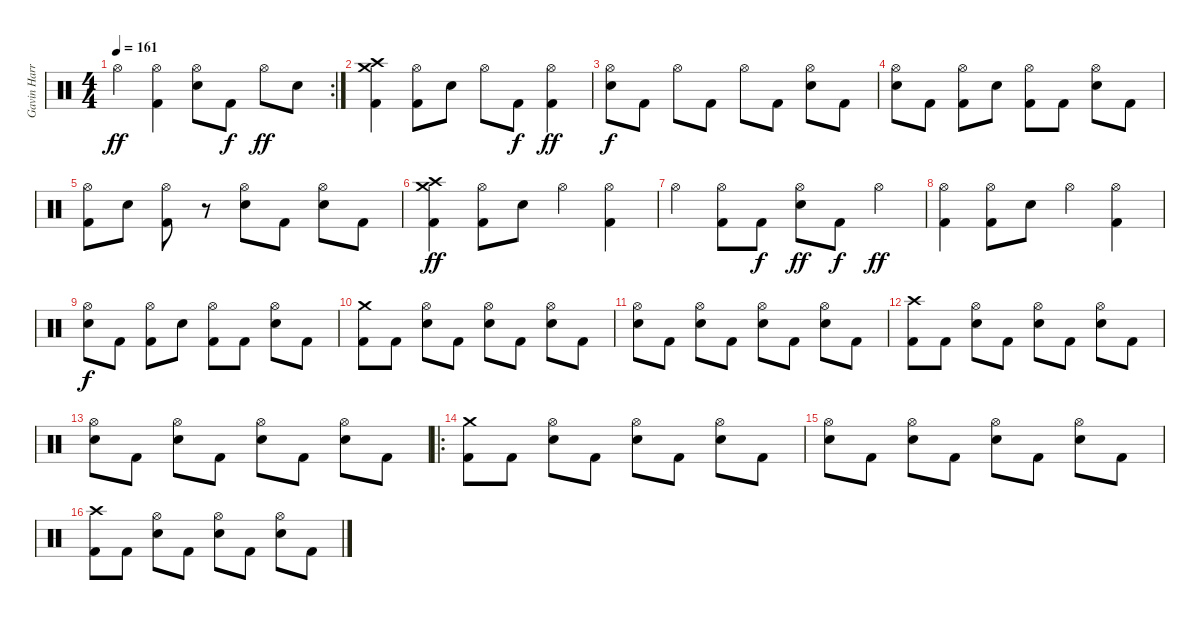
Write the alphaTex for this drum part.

\track ("Gavin Harrison (Drums)" "Gavin Harr") {instrument percussion}
\staff {score}
\articulation defaults
\rc 2
\ts (4 4)
\tempo 161
\clef neutral
\ks c "Hi-Hat (open)".4{dy ff}
("Hi-Hat (open)" "Kick (hit) 2").4 ("Hi-Hat (open)" "Electric Snare (hit)").8 "Kick (hit) 2".8{dy f} "Hi-Hat (open)".8{dy ff} "Electric Snare (hit)".8 |
("Crash high (hit)" "Crash medium (hit)" "Kick (hit) 2").4 ("Hi-Hat (open)" "Kick (hit) 2").8 "Electric Snare (hit)".8 "Hi-Hat (open)".8 "Kick (hit) 2".8{dy f} ("Hi-Hat (open)" "Kick (hit) 2").4{dy ff} |
("Hi-Hat (open)" "Electric Snare (hit)").8{dy f} "Kick (hit) 2".8 "Hi-Hat (open)".8 "Kick (hit) 2".8 "Hi-Hat (open)".8 "Kick (hit) 2".8 ("Hi-Hat (open)" "Electric Snare (hit)").8 "Kick (hit) 2".8 |
("Hi-Hat (open)" "Electric Snare (hit)").8 "Kick (hit) 2".8 ("Hi-Hat (open)" "Kick (hit) 2").8 "Electric Snare (hit)".8 ("Hi-Hat (open)" "Kick (hit) 2").8 "Kick (hit) 2".8 ("Hi-Hat (open)" "Electric Snare (hit)").8 "Kick (hit) 2".8 |
("Hi-Hat (open)" "Kick (hit) 2").8 "Electric Snare (hit)".8 ("Hi-Hat (open)" "Kick (hit) 2").8 r.8 ("Hi-Hat (open)" "Electric Snare (hit)").8 "Kick (hit) 2".8 ("Hi-Hat (open)" "Electric Snare (hit)").8 "Kick (hit) 2".8 |
("Crash high (hit)" "Crash medium (hit)" "Kick (hit) 2").4{dy ff} ("Hi-Hat (open)" "Kick (hit) 2").8 "Electric Snare (hit)".8 "Hi-Hat (open)".4 ("Hi-Hat (open)" "Kick (hit) 2").4 |
"Hi-Hat (open)".4 ("Hi-Hat (open)" "Kick (hit) 2").8 "Kick (hit) 2".8{dy f} ("Hi-Hat (open)" "Electric Snare (hit)").8{dy ff} "Kick (hit) 2".8{dy f} "Hi-Hat (open)".4{dy ff} |
("Hi-Hat (open)" "Kick (hit) 2").4 ("Hi-Hat (open)" "Kick (hit) 2").8 "Electric Snare (hit)".8 "Hi-Hat (open)".4 ("Hi-Hat (open)" "Kick (hit) 2").4 |
("Hi-Hat (open)" "Electric Snare (hit)").8{dy f} "Kick (hit) 2".8 ("Hi-Hat (open)" "Kick (hit) 2").8 "Electric Snare (hit)".8 ("Hi-Hat (open)" "Kick (hit) 2").8 "Kick (hit) 2".8 ("Hi-Hat (open)" "Electric Snare (hit)").8 "Kick (hit) 2".8 |
("Crash medium (hit)" "Kick (hit) 2").8 "Kick (hit) 2".8 ("Hi-Hat (open)" "Electric Snare (hit)").8 "Kick (hit) 2".8 ("Hi-Hat (open)" "Electric Snare (hit)").8 "Kick (hit) 2".8 ("Hi-Hat (open)" "Electric Snare (hit)").8 "Kick (hit) 2".8 |
("Hi-Hat (open)" "Electric Snare (hit)").8 "Kick (hit) 2".8 ("Hi-Hat (open)" "Electric Snare (hit)").8 "Kick (hit) 2".8 ("Hi-Hat (open)" "Electric Snare (hit)").8 "Kick (hit) 2".8 ("Hi-Hat (open)" "Electric Snare (hit)").8 "Kick (hit) 2".8 |
("Crash high (hit)" "Kick (hit) 2").8 "Kick (hit) 2".8 ("Hi-Hat (open)" "Electric Snare (hit)").8 "Kick (hit) 2".8 ("Hi-Hat (open)" "Electric Snare (hit)").8 "Kick (hit) 2".8 ("Hi-Hat (open)" "Electric Snare (hit)").8 "Kick (hit) 2".8 |
("Hi-Hat (open)" "Electric Snare (hit)").8 "Kick (hit) 2".8 ("Hi-Hat (open)" "Electric Snare (hit)").8 "Kick (hit) 2".8 ("Hi-Hat (open)" "Electric Snare (hit)").8 "Kick (hit) 2".8 ("Hi-Hat (open)" "Electric Snare (hit)").8 "Kick (hit) 2".8 |
\ro
("Crash medium (hit)" "Kick (hit) 2").8 "Kick (hit) 2".8 ("Hi-Hat (open)" "Electric Snare (hit)").8 "Kick (hit) 2".8 ("Hi-Hat (open)" "Electric Snare (hit)").8 "Kick (hit) 2".8 ("Hi-Hat (open)" "Electric Snare (hit)").8 "Kick (hit) 2".8 |
("Hi-Hat (open)" "Electric Snare (hit)").8 "Kick (hit) 2".8 ("Hi-Hat (open)" "Electric Snare (hit)").8 "Kick (hit) 2".8 ("Hi-Hat (open)" "Electric Snare (hit)").8 "Kick (hit) 2".8 ("Hi-Hat (open)" "Electric Snare (hit)").8 "Kick (hit) 2".8 |
("Crash high (hit)" "Kick (hit) 2").8 "Kick (hit) 2".8 ("Hi-Hat (open)" "Electric Snare (hit)").8 "Kick (hit) 2".8 ("Hi-Hat (open)" "Electric Snare (hit)").8 "Kick (hit) 2".8 ("Hi-Hat (open)" "Electric Snare (hit)").8 "Kick (hit) 2".8
